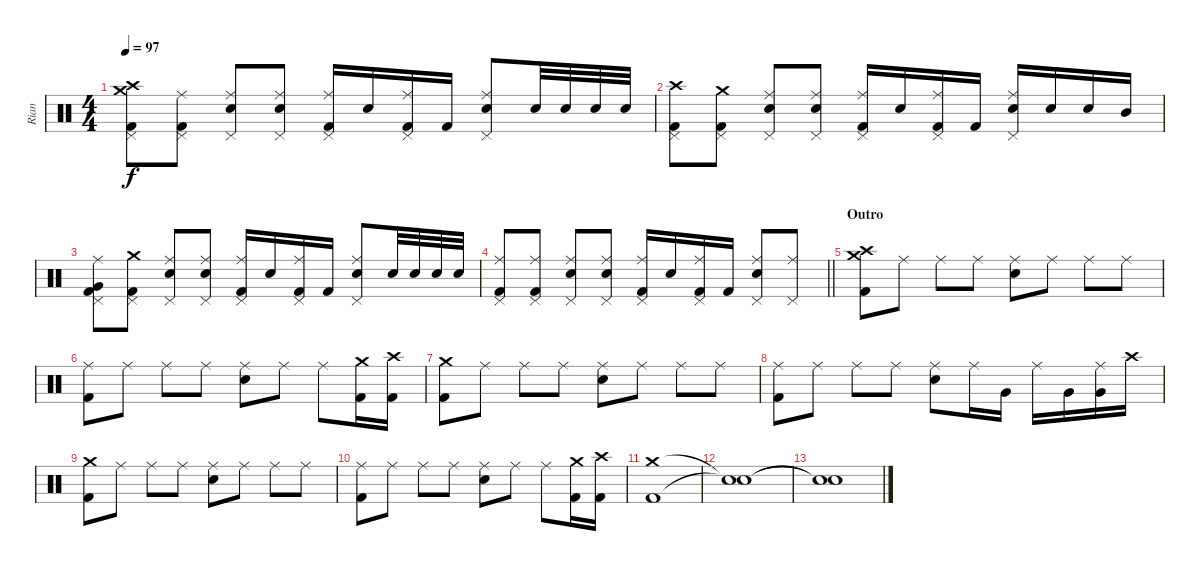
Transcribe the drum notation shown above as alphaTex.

\track ("Rian" "Rian") {instrument percussion}
\staff {score}
\articulation defaults
\ts (4 4)
\tempo 97
\clef neutral
\ks c
("Crash high (hit)" "Crash medium (hit)" "Pedal Hi-Hat (hit)" "Kick (hit) 2").8{dy f} ("Ride (middle)" "Pedal Hi-Hat (hit)" "Kick (hit) 2").8 ("Ride (middle)" "Pedal Hi-Hat (hit)" "Electric Snare (hit)").8 ("Ride (middle)" "Pedal Hi-Hat (hit)" "Electric Snare (hit)").8 ("Ride (middle)" "Pedal Hi-Hat (hit)" "Kick (hit) 2").16 "Electric Snare (hit)".16 ("Ride (middle)" "Pedal Hi-Hat (hit)" "Kick (hit) 2").16 "Kick (hit) 2".16 ("Ride (middle)" "Pedal Hi-Hat (hit)" "Electric Snare (hit)").8 "Electric Snare (hit)".32 "Electric Snare (hit)".32 "Electric Snare (hit)".32 "Electric Snare (hit)".32 |
("Crash high (hit)" "Pedal Hi-Hat (hit)" "Kick (hit) 2").8 ("Crash medium (hit)" "Pedal Hi-Hat (hit)" "Kick (hit) 2").8 ("Ride (middle)" "Pedal Hi-Hat (hit)" "Electric Snare (hit)").8 ("Ride (middle)" "Pedal Hi-Hat (hit)" "Electric Snare (hit)").8 ("Ride (middle)" "Pedal Hi-Hat (hit)" "Kick (hit) 2").16 "Electric Snare (hit)".16 ("Ride (middle)" "Pedal Hi-Hat (hit)" "Kick (hit) 2").16 "Kick (hit) 2".16 ("Ride (middle)" "Pedal Hi-Hat (hit)" "Electric Snare (hit)").16 "Electric Snare (hit)".16 "Electric Snare (hit)".16 "Mid Tom (hit)".16 |
("Ride (middle)" "Pedal Hi-Hat (hit)" "Very Low Tom (hit)" "Kick (hit) 2").8 ("Crash medium (hit)" "Pedal Hi-Hat (hit)" "Kick (hit) 2").8 ("Ride (middle)" "Pedal Hi-Hat (hit)" "Electric Snare (hit)").8 ("Ride (middle)" "Pedal Hi-Hat (hit)" "Electric Snare (hit)").8 ("Ride (middle)" "Pedal Hi-Hat (hit)" "Kick (hit) 2").16 "Electric Snare (hit)".16 ("Ride (middle)" "Pedal Hi-Hat (hit)" "Kick (hit) 2").16 "Kick (hit) 2".16 ("Ride (middle)" "Pedal Hi-Hat (hit)" "Electric Snare (hit)").8 "Electric Snare (hit)".32 "Electric Snare (hit)".32 "Electric Snare (hit)".32 "Electric Snare (hit)".32 |
\barLineRight lightlight
("Ride (middle)" "Pedal Hi-Hat (hit)" "Kick (hit) 2").8 ("Ride (middle)" "Pedal Hi-Hat (hit)" "Kick (hit) 2").8 ("Ride (middle)" "Pedal Hi-Hat (hit)" "Electric Snare (hit)").8 ("Ride (middle)" "Pedal Hi-Hat (hit)" "Electric Snare (hit)").8 ("Ride (middle)" "Pedal Hi-Hat (hit)" "Kick (hit) 2").16 "Electric Snare (hit)".16 ("Ride (middle)" "Pedal Hi-Hat (hit)" "Kick (hit) 2").16 "Kick (hit) 2".16 ("Ride (middle)" "Pedal Hi-Hat (hit)" "Electric Snare (hit)").8 ("Ride (middle)" "Pedal Hi-Hat (hit)").8 |
\section ("" "Outro")
("Crash medium (hit)" "Crash high (hit)" "Kick (hit) 2").8 "Ride (middle)".8 "Ride (middle)".8 "Ride (middle)".8 ("Ride (middle)" "Electric Snare (hit)").8 "Ride (middle)".8 "Ride (middle)".8 "Ride (middle)".8 |
("Ride (middle)" "Kick (hit) 2").8 "Ride (middle)".8 "Ride (middle)".8 "Ride (middle)".8 ("Ride (middle)" "Electric Snare (hit)").8 "Ride (middle)".8 "Ride (middle)".8 ("Crash medium (hit)" "Kick (hit) 2").16 ("Crash high (hit)" "Kick (hit) 2").16 |
("Crash medium (hit)" "Kick (hit) 2").8 "Ride (middle)".8 "Ride (middle)".8 "Ride (middle)".8 ("Ride (middle)" "Electric Snare (hit)").8 "Ride (middle)".8 "Ride (middle)".8 "Ride (middle)".8 |
("Ride (middle)" "Kick (hit) 2").8 "Ride (middle)".8 "Ride (middle)".8 "Ride (middle)".8 ("Ride (middle)" "Electric Snare (hit)").8 "Ride (middle)".16 "Very Low Tom (hit)".16 "Ride (middle)".16 "Very Low Tom (hit)".16 ("Ride (middle)" "Very Low Tom (hit)").16 "Crash high (hit)".16 |
("Crash medium (hit)" "Kick (hit) 2").8 "Ride (middle)".8 "Ride (middle)".8 "Ride (middle)".8 ("Ride (middle)" "Electric Snare (hit)").8 "Ride (middle)".8 "Ride (middle)".8 "Ride (middle)".8 |
("Ride (middle)" "Kick (hit) 2").8 "Ride (middle)".8 "Ride (middle)".8 "Ride (middle)".8 ("Ride (middle)" "Electric Snare (hit)").8 "Ride (middle)".8 "Ride (middle)".8 ("Crash medium (hit)" "Kick (hit) 2").16 ("Crash high (hit)" "Kick (hit) 2").16 |
("Crash medium (hit)" "Kick (hit) 2").1 |
("Snare (hit)"{t} "Snare (hit)"{t}).1 |
("Snare (hit)"{t} "Snare (hit)"{t}).1
